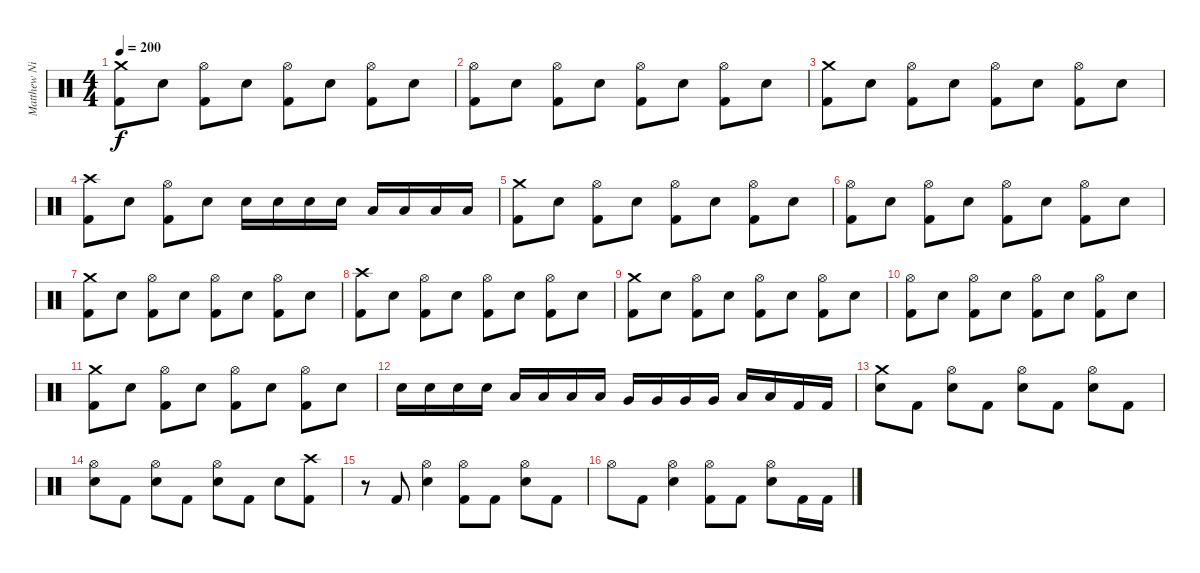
\track ("Matthew Nicholls" "Matthew Ni") {instrument percussion}
\staff {score}
\articulation defaults
\ts (4 4)
\tempo 200
\clef neutral
\ks c
("Crash medium (hit)" "Kick (hit) 2").8{dy f} "Electric Snare (hit)".8 ("Hi-Hat (open)" "Kick (hit) 2").8 "Electric Snare (hit)".8 ("Hi-Hat (open)" "Kick (hit) 2").8 "Electric Snare (hit)".8 ("Hi-Hat (open)" "Kick (hit) 2").8 "Electric Snare (hit)".8 |
("Hi-Hat (open)" "Kick (hit) 2").8 "Electric Snare (hit)".8 ("Hi-Hat (open)" "Kick (hit) 2").8 "Electric Snare (hit)".8 ("Hi-Hat (open)" "Kick (hit) 2").8 "Electric Snare (hit)".8 ("Hi-Hat (open)" "Kick (hit) 2").8 "Electric Snare (hit)".8 |
("Crash medium (hit)" "Kick (hit) 2").8 "Electric Snare (hit)".8 ("Hi-Hat (open)" "Kick (hit) 2").8 "Electric Snare (hit)".8 ("Hi-Hat (open)" "Kick (hit) 2").8 "Electric Snare (hit)".8 ("Hi-Hat (open)" "Kick (hit) 2").8 "Electric Snare (hit)".8 |
("Crash high (hit)" "Kick (hit) 2").8 "Electric Snare (hit)".8 ("Hi-Hat (open)" "Kick (hit) 2").8 "Electric Snare (hit)".8 "Electric Snare (hit)".16 "Electric Snare (hit)".16 "Electric Snare (hit)".16 "Electric Snare (hit)".16 "Low Tom (hit)".16 "Low Tom (hit)".16 "Low Tom (hit)".16 "Low Tom (hit)".16 |
("Crash medium (hit)" "Kick (hit) 2").8 "Electric Snare (hit)".8 ("Hi-Hat (open)" "Kick (hit) 2").8 "Electric Snare (hit)".8 ("Hi-Hat (open)" "Kick (hit) 2").8 "Electric Snare (hit)".8 ("Hi-Hat (open)" "Kick (hit) 2").8 "Electric Snare (hit)".8 |
("Hi-Hat (open)" "Kick (hit) 2").8 "Electric Snare (hit)".8 ("Hi-Hat (open)" "Kick (hit) 2").8 "Electric Snare (hit)".8 ("Hi-Hat (open)" "Kick (hit) 2").8 "Electric Snare (hit)".8 ("Hi-Hat (open)" "Kick (hit) 2").8 "Electric Snare (hit)".8 |
("Crash medium (hit)" "Kick (hit) 2").8 "Electric Snare (hit)".8 ("Hi-Hat (open)" "Kick (hit) 2").8 "Electric Snare (hit)".8 ("Hi-Hat (open)" "Kick (hit) 2").8 "Electric Snare (hit)".8 ("Hi-Hat (open)" "Kick (hit) 2").8 "Electric Snare (hit)".8 |
("Crash high (hit)" "Kick (hit) 2").8 "Electric Snare (hit)".8 ("Hi-Hat (open)" "Kick (hit) 2").8 "Electric Snare (hit)".8 ("Hi-Hat (open)" "Kick (hit) 2").8 "Electric Snare (hit)".8 ("Hi-Hat (open)" "Kick (hit) 2").8 "Electric Snare (hit)".8 |
("Crash medium (hit)" "Kick (hit) 2").8 "Electric Snare (hit)".8 ("Hi-Hat (open)" "Kick (hit) 2").8 "Electric Snare (hit)".8 ("Hi-Hat (open)" "Kick (hit) 2").8 "Electric Snare (hit)".8 ("Hi-Hat (open)" "Kick (hit) 2").8 "Electric Snare (hit)".8 |
("Hi-Hat (open)" "Kick (hit) 2").8 "Electric Snare (hit)".8 ("Hi-Hat (open)" "Kick (hit) 2").8 "Electric Snare (hit)".8 ("Hi-Hat (open)" "Kick (hit) 2").8 "Electric Snare (hit)".8 ("Hi-Hat (open)" "Kick (hit) 2").8 "Electric Snare (hit)".8 |
("Crash medium (hit)" "Kick (hit) 2").8 "Electric Snare (hit)".8 ("Hi-Hat (open)" "Kick (hit) 2").8 "Electric Snare (hit)".8 ("Hi-Hat (open)" "Kick (hit) 2").8 "Electric Snare (hit)".8 ("Hi-Hat (open)" "Kick (hit) 2").8 "Electric Snare (hit)".8 |
"Electric Snare (hit)".16 "Electric Snare (hit)".16 "Electric Snare (hit)".16 "Electric Snare (hit)".16 "Low Tom (hit)".16 "Low Tom (hit)".16 "Low Tom (hit)".16 "Low Tom (hit)".16 "Very Low Tom (hit)".16 "Very Low Tom (hit)".16 "Very Low Tom (hit)".16 "Very Low Tom (hit)".16 "Low Floor Tom (hit)".16 "Low Floor Tom (hit)".16 "Kick (hit) 2".16 "Kick (hit) 2".16 |
("Crash medium (hit)" "Electric Snare (hit)").8 "Kick (hit) 2".8 ("Hi-Hat (open)" "Electric Snare (hit)").8 "Kick (hit) 2".8 ("Hi-Hat (open)" "Electric Snare (hit)").8 "Kick (hit) 2".8 ("Hi-Hat (open)" "Electric Snare (hit)").8 "Kick (hit) 2".8 |
("Hi-Hat (open)" "Electric Snare (hit)").8 "Kick (hit) 2".8 ("Hi-Hat (open)" "Electric Snare (hit)").8 "Kick (hit) 2".8 ("Hi-Hat (open)" "Electric Snare (hit)").8 "Kick (hit) 2".8 "Electric Snare (hit)".8 ("Crash high (hit)" "Kick (hit) 2").8 |
r.8 "Kick (hit) 2".8 ("Hi-Hat (open)" "Electric Snare (hit)").4 ("Hi-Hat (open)" "Kick (hit) 2").8 "Kick (hit) 2".8 ("Hi-Hat (open)" "Electric Snare (hit)").8 "Kick (hit) 2".8 |
"Hi-Hat (open)".8 "Kick (hit) 2".8 ("Hi-Hat (open)" "Electric Snare (hit)").4 ("Hi-Hat (open)" "Kick (hit) 2").8 "Kick (hit) 2".8 ("Hi-Hat (open)" "Electric Snare (hit)").8 "Kick (hit) 2".16 "Kick (hit) 2".16
